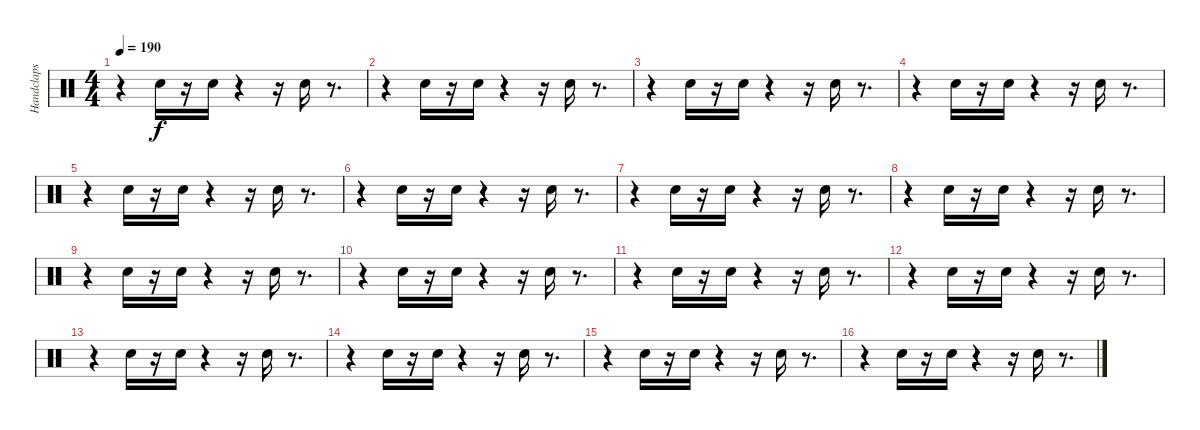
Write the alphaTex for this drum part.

\track ("Handclaps" "Handclaps") {instrument percussion}
\staff {score}
\articulation defaults
\ts (4 4)
\tempo 190
\clef neutral
\ks c
r.4{dy f} "Hand Clap (hit)".16 r.16 "Hand Clap (hit)".16 r.4 r.16 "Hand Clap (hit)".16 r.8{d} |
r.4 "Hand Clap (hit)".16 r.16 "Hand Clap (hit)".16 r.4 r.16 "Hand Clap (hit)".16 r.8{d} |
r.4 "Hand Clap (hit)".16 r.16 "Hand Clap (hit)".16 r.4 r.16 "Hand Clap (hit)".16 r.8{d} |
r.4 "Hand Clap (hit)".16 r.16 "Hand Clap (hit)".16 r.4 r.16 "Hand Clap (hit)".16 r.8{d} |
r.4 "Hand Clap (hit)".16 r.16 "Hand Clap (hit)".16 r.4 r.16 "Hand Clap (hit)".16 r.8{d} |
r.4 "Hand Clap (hit)".16 r.16 "Hand Clap (hit)".16 r.4 r.16 "Hand Clap (hit)".16 r.8{d} |
r.4 "Hand Clap (hit)".16 r.16 "Hand Clap (hit)".16 r.4 r.16 "Hand Clap (hit)".16 r.8{d} |
r.4 "Hand Clap (hit)".16 r.16 "Hand Clap (hit)".16 r.4 r.16 "Hand Clap (hit)".16 r.8{d} |
r.4 "Hand Clap (hit)".16 r.16 "Hand Clap (hit)".16 r.4 r.16 "Hand Clap (hit)".16 r.8{d} |
r.4 "Hand Clap (hit)".16 r.16 "Hand Clap (hit)".16 r.4 r.16 "Hand Clap (hit)".16 r.8{d} |
r.4 "Hand Clap (hit)".16 r.16 "Hand Clap (hit)".16 r.4 r.16 "Hand Clap (hit)".16 r.8{d} |
r.4 "Hand Clap (hit)".16 r.16 "Hand Clap (hit)".16 r.4 r.16 "Hand Clap (hit)".16 r.8{d} |
r.4 "Hand Clap (hit)".16 r.16 "Hand Clap (hit)".16 r.4 r.16 "Hand Clap (hit)".16 r.8{d} |
r.4 "Hand Clap (hit)".16 r.16 "Hand Clap (hit)".16 r.4 r.16 "Hand Clap (hit)".16 r.8{d} |
r.4 "Hand Clap (hit)".16 r.16 "Hand Clap (hit)".16 r.4 r.16 "Hand Clap (hit)".16 r.8{d} |
r.4 "Hand Clap (hit)".16 r.16 "Hand Clap (hit)".16 r.4 r.16 "Hand Clap (hit)".16 r.8{d}
